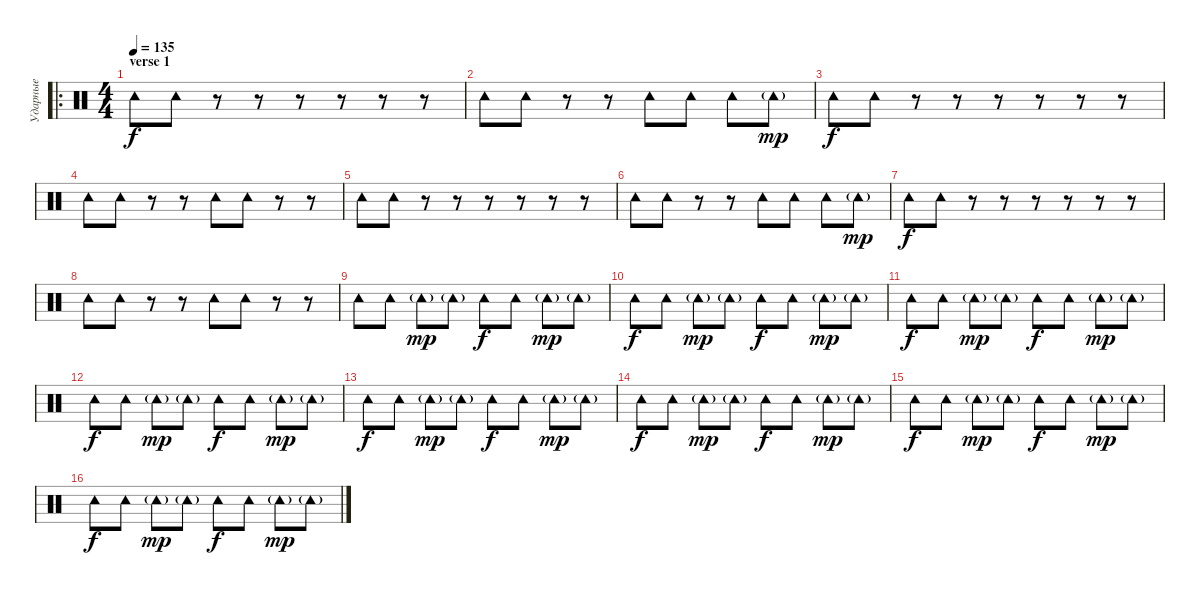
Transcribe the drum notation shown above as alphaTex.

\track ("Ударные" "Ударные") {instrument percussion}
\staff {score}
\articulation defaults
\ro
\ts (4 4)
\section ("" "verse 1")
\tempo 135
\clef neutral
\ks c "Tambourine (hit)".8{dy f} "Tambourine (hit)".8
r.8 r.8 r.8 r.8 r.8 r.8 |
"Tambourine (hit)".8 "Tambourine (hit)".8 r.8 r.8 "Tambourine (hit)".8 "Tambourine (hit)".8 "Tambourine (hit)".8 "Tambourine (hit)"{g}.8{dy mp} |
"Tambourine (hit)".8{dy f} "Tambourine (hit)".8 r.8 r.8 r.8 r.8 r.8 r.8 |
"Tambourine (hit)".8 "Tambourine (hit)".8 r.8 r.8 "Tambourine (hit)".8 "Tambourine (hit)".8 r.8 r.8 |
"Tambourine (hit)".8 "Tambourine (hit)".8 r.8 r.8 r.8 r.8 r.8 r.8 |
"Tambourine (hit)".8 "Tambourine (hit)".8 r.8 r.8 "Tambourine (hit)".8 "Tambourine (hit)".8 "Tambourine (hit)".8 "Tambourine (hit)"{g}.8{dy mp} |
"Tambourine (hit)".8{dy f} "Tambourine (hit)".8 r.8 r.8 r.8 r.8 r.8 r.8 |
"Tambourine (hit)".8 "Tambourine (hit)".8 r.8 r.8 "Tambourine (hit)".8 "Tambourine (hit)".8 r.8 r.8 |
"Tambourine (hit)".8 "Tambourine (hit)".8 "Tambourine (hit)"{g}.8{dy mp} "Tambourine (hit)"{g}.8 "Tambourine (hit)".8{dy f} "Tambourine (hit)".8 "Tambourine (hit)"{g}.8{dy mp} "Tambourine (hit)"{g}.8 |
"Tambourine (hit)".8{dy f} "Tambourine (hit)".8 "Tambourine (hit)"{g}.8{dy mp} "Tambourine (hit)"{g}.8 "Tambourine (hit)".8{dy f} "Tambourine (hit)".8 "Tambourine (hit)"{g}.8{dy mp} "Tambourine (hit)"{g}.8 |
"Tambourine (hit)".8{dy f} "Tambourine (hit)".8 "Tambourine (hit)"{g}.8{dy mp} "Tambourine (hit)"{g}.8 "Tambourine (hit)".8{dy f} "Tambourine (hit)".8 "Tambourine (hit)"{g}.8{dy mp} "Tambourine (hit)"{g}.8 |
"Tambourine (hit)".8{dy f} "Tambourine (hit)".8 "Tambourine (hit)"{g}.8{dy mp} "Tambourine (hit)"{g}.8 "Tambourine (hit)".8{dy f} "Tambourine (hit)".8 "Tambourine (hit)"{g}.8{dy mp} "Tambourine (hit)"{g}.8 |
"Tambourine (hit)".8{dy f} "Tambourine (hit)".8 "Tambourine (hit)"{g}.8{dy mp} "Tambourine (hit)"{g}.8 "Tambourine (hit)".8{dy f} "Tambourine (hit)".8 "Tambourine (hit)"{g}.8{dy mp} "Tambourine (hit)"{g}.8 |
"Tambourine (hit)".8{dy f} "Tambourine (hit)".8 "Tambourine (hit)"{g}.8{dy mp} "Tambourine (hit)"{g}.8 "Tambourine (hit)".8{dy f} "Tambourine (hit)".8 "Tambourine (hit)"{g}.8{dy mp} "Tambourine (hit)"{g}.8 |
"Tambourine (hit)".8{dy f} "Tambourine (hit)".8 "Tambourine (hit)"{g}.8{dy mp} "Tambourine (hit)"{g}.8 "Tambourine (hit)".8{dy f} "Tambourine (hit)".8 "Tambourine (hit)"{g}.8{dy mp} "Tambourine (hit)"{g}.8 |
"Tambourine (hit)".8{dy f} "Tambourine (hit)".8 "Tambourine (hit)"{g}.8{dy mp} "Tambourine (hit)"{g}.8 "Tambourine (hit)".8{dy f} "Tambourine (hit)".8 "Tambourine (hit)"{g}.8{dy mp} "Tambourine (hit)"{g}.8
